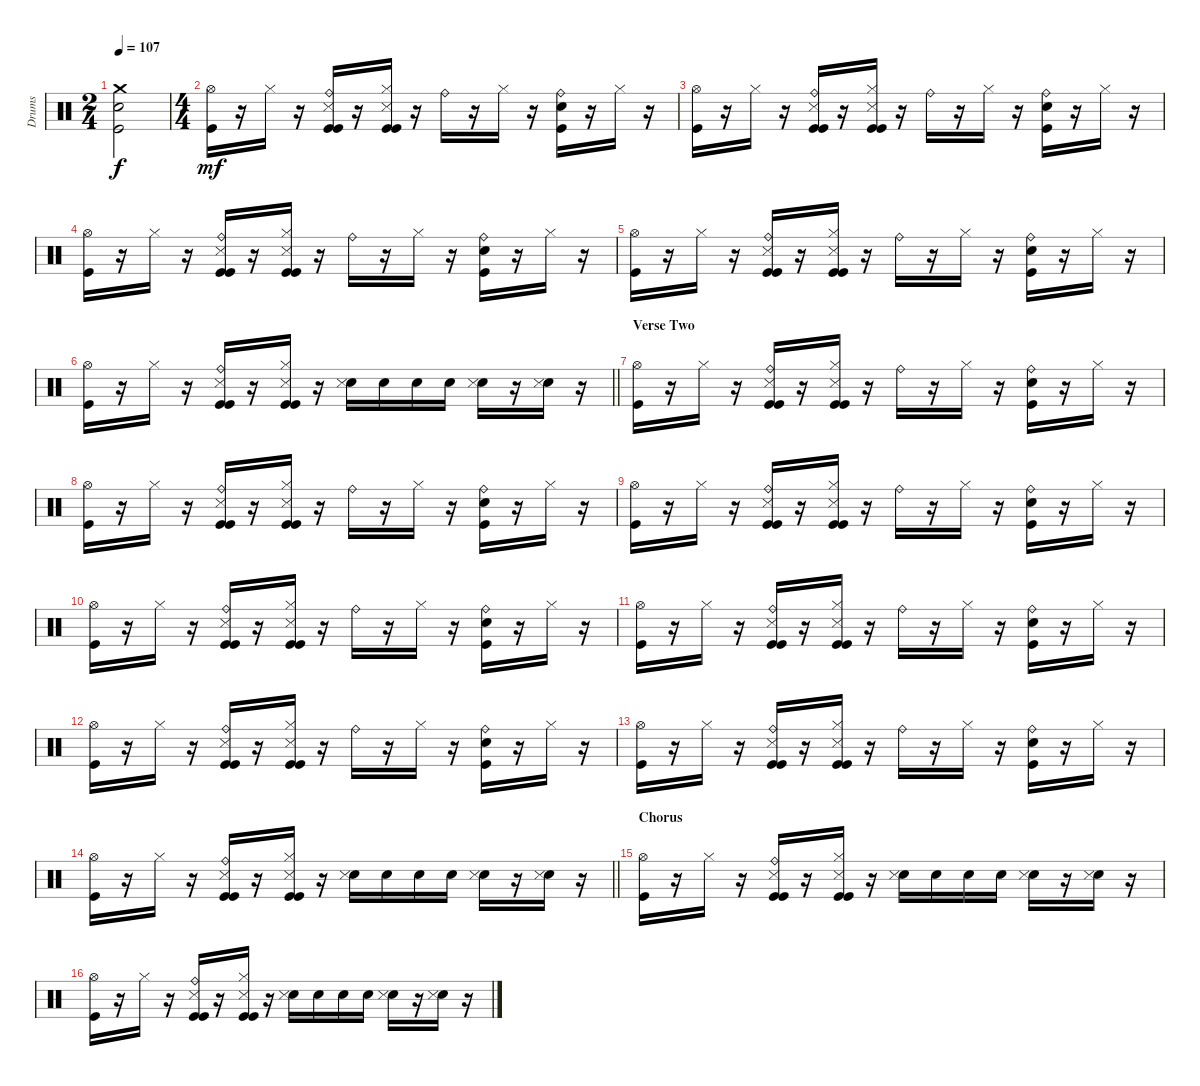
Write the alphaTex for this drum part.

\track ("Drums" "Drums") {instrument percussion}
\staff {score}
\articulation defaults
\ts (2 4)
\tempo 107
\clef neutral
\ks c
("Crash medium (hit)" "Electric Snare (hit)" "Kick (hit)").2{dy f} |
\ts (4 4)
("Hi-Hat (open)" "Kick (hit)").16{dy mf} r.16 "Hi-Hat (closed)".16 r.16 ("Ride (bell)" "Kick (hit)" "Snare (side stick) 3" "Kick (hit)").16 r.16 ("Hi-Hat (closed)" "Kick (hit)" "Snare (side stick) 3" "Kick (hit)").16 r.16 "Ride (bell)".16 r.16 "Hi-Hat (closed)".16 r.16 ("Ride (bell)" "Electric Snare (hit)" "Kick (hit)").16 r.16 "Hi-Hat (closed)".16 r.16 |
("Hi-Hat (open)" "Kick (hit)").16 r.16 "Hi-Hat (closed)".16 r.16 ("Ride (bell)" "Kick (hit)" "Snare (side stick) 3" "Kick (hit)").16 r.16 ("Hi-Hat (closed)" "Kick (hit)" "Snare (side stick) 3" "Kick (hit)").16 r.16 "Ride (bell)".16 r.16 "Hi-Hat (closed)".16 r.16 ("Ride (bell)" "Electric Snare (hit)" "Kick (hit)").16 r.16 "Hi-Hat (closed)".16 r.16 |
("Hi-Hat (open)" "Kick (hit)").16 r.16 "Hi-Hat (closed)".16 r.16 ("Ride (bell)" "Kick (hit)" "Snare (side stick) 3" "Kick (hit)").16 r.16 ("Hi-Hat (closed)" "Kick (hit)" "Snare (side stick) 3" "Kick (hit)").16 r.16 "Ride (bell)".16 r.16 "Hi-Hat (closed)".16 r.16 ("Ride (bell)" "Electric Snare (hit)" "Kick (hit)").16 r.16 "Hi-Hat (closed)".16 r.16 |
("Hi-Hat (open)" "Kick (hit)").16 r.16 "Hi-Hat (closed)".16 r.16 ("Ride (bell)" "Kick (hit)" "Snare (side stick) 3" "Kick (hit)").16 r.16 ("Hi-Hat (closed)" "Kick (hit)" "Snare (side stick) 3" "Kick (hit)").16 r.16 "Ride (bell)".16 r.16 "Hi-Hat (closed)".16 r.16 ("Ride (bell)" "Electric Snare (hit)" "Kick (hit)").16 r.16 "Hi-Hat (closed)".16 r.16 |
\barLineRight lightlight
("Hi-Hat (open)" "Kick (hit)").16 r.16 "Hi-Hat (closed)".16 r.16 ("Ride (bell)" "Kick (hit)" "Snare (side stick) 3" "Kick (hit)").16 r.16 ("Hi-Hat (closed)" "Kick (hit)" "Snare (side stick) 3" "Kick (hit)").16 r.16 ("Electric Snare (hit)" "Snare (side stick) 3").16 "Electric Snare (hit)".16 "Electric Snare (hit)".16 "Electric Snare (hit)".16 ("Electric Snare (hit)" "Snare (side stick) 3").16 r.16 ("Electric Snare (hit)" "Snare (side stick) 3").16 r.16 |
\section ("" "Verse Two")
("Hi-Hat (open)" "Kick (hit)").16 r.16 "Hi-Hat (closed)".16 r.16 ("Ride (bell)" "Kick (hit)" "Snare (side stick) 3" "Kick (hit)").16 r.16 ("Hi-Hat (closed)" "Kick (hit)" "Snare (side stick) 3" "Kick (hit)").16 r.16 "Ride (bell)".16 r.16 "Hi-Hat (closed)".16 r.16 ("Ride (bell)" "Electric Snare (hit)" "Kick (hit)").16 r.16 "Hi-Hat (closed)".16 r.16 |
("Hi-Hat (open)" "Kick (hit)").16 r.16 "Hi-Hat (closed)".16 r.16 ("Ride (bell)" "Kick (hit)" "Snare (side stick) 3" "Kick (hit)").16 r.16 ("Hi-Hat (closed)" "Kick (hit)" "Snare (side stick) 3" "Kick (hit)").16 r.16 "Ride (bell)".16 r.16 "Hi-Hat (closed)".16 r.16 ("Ride (bell)" "Electric Snare (hit)" "Kick (hit)").16 r.16 "Hi-Hat (closed)".16 r.16 |
("Hi-Hat (open)" "Kick (hit)").16 r.16 "Hi-Hat (closed)".16 r.16 ("Ride (bell)" "Kick (hit)" "Snare (side stick) 3" "Kick (hit)").16 r.16 ("Hi-Hat (closed)" "Kick (hit)" "Snare (side stick) 3" "Kick (hit)").16 r.16 "Ride (bell)".16 r.16 "Hi-Hat (closed)".16 r.16 ("Ride (bell)" "Electric Snare (hit)" "Kick (hit)").16 r.16 "Hi-Hat (closed)".16 r.16 |
("Hi-Hat (open)" "Kick (hit)").16 r.16 "Hi-Hat (closed)".16 r.16 ("Ride (bell)" "Kick (hit)" "Snare (side stick) 3" "Kick (hit)").16 r.16 ("Hi-Hat (closed)" "Kick (hit)" "Snare (side stick) 3" "Kick (hit)").16 r.16 "Ride (bell)".16 r.16 "Hi-Hat (closed)".16 r.16 ("Ride (bell)" "Electric Snare (hit)" "Kick (hit)").16 r.16 "Hi-Hat (closed)".16 r.16 |
("Hi-Hat (open)" "Kick (hit)").16 r.16 "Hi-Hat (closed)".16 r.16 ("Ride (bell)" "Kick (hit)" "Snare (side stick) 3" "Kick (hit)").16 r.16 ("Hi-Hat (closed)" "Kick (hit)" "Snare (side stick) 3" "Kick (hit)").16 r.16 "Ride (bell)".16 r.16 "Hi-Hat (closed)".16 r.16 ("Ride (bell)" "Electric Snare (hit)" "Kick (hit)").16 r.16 "Hi-Hat (closed)".16 r.16 |
("Hi-Hat (open)" "Kick (hit)").16 r.16 "Hi-Hat (closed)".16 r.16 ("Ride (bell)" "Kick (hit)" "Snare (side stick) 3" "Kick (hit)").16 r.16 ("Hi-Hat (closed)" "Kick (hit)" "Snare (side stick) 3" "Kick (hit)").16 r.16 "Ride (bell)".16 r.16 "Hi-Hat (closed)".16 r.16 ("Ride (bell)" "Electric Snare (hit)" "Kick (hit)").16 r.16 "Hi-Hat (closed)".16 r.16 |
("Hi-Hat (open)" "Kick (hit)").16 r.16 "Hi-Hat (closed)".16 r.16 ("Ride (bell)" "Kick (hit)" "Snare (side stick) 3" "Kick (hit)").16 r.16 ("Hi-Hat (closed)" "Kick (hit)" "Snare (side stick) 3" "Kick (hit)").16 r.16 "Ride (bell)".16 r.16 "Hi-Hat (closed)".16 r.16 ("Ride (bell)" "Electric Snare (hit)" "Kick (hit)").16 r.16 "Hi-Hat (closed)".16 r.16 |
\barLineRight lightlight
("Hi-Hat (open)" "Kick (hit)").16 r.16 "Hi-Hat (closed)".16 r.16 ("Ride (bell)" "Kick (hit)" "Snare (side stick) 3" "Kick (hit)").16 r.16 ("Hi-Hat (closed)" "Kick (hit)" "Snare (side stick) 3" "Kick (hit)").16 r.16 ("Electric Snare (hit)" "Snare (side stick) 3").16 "Electric Snare (hit)".16 "Electric Snare (hit)".16 "Electric Snare (hit)".16 ("Electric Snare (hit)" "Snare (side stick) 3").16 r.16 ("Electric Snare (hit)" "Snare (side stick) 3").16 r.16 |
\section ("" "Chorus")
("Hi-Hat (open)" "Kick (hit)").16 r.16 "Hi-Hat (closed)".16 r.16 ("Ride (bell)" "Kick (hit)" "Snare (side stick) 3" "Kick (hit)").16 r.16 ("Hi-Hat (closed)" "Kick (hit)" "Snare (side stick) 3" "Kick (hit)").16 r.16 ("Electric Snare (hit)" "Snare (side stick) 3").16 "Electric Snare (hit)".16 "Electric Snare (hit)".16 "Electric Snare (hit)".16 ("Electric Snare (hit)" "Snare (side stick) 3").16 r.16 ("Electric Snare (hit)" "Snare (side stick) 3").16 r.16 |
("Hi-Hat (open)" "Kick (hit)").16 r.16 "Hi-Hat (closed)".16 r.16 ("Ride (bell)" "Kick (hit)" "Snare (side stick) 3" "Kick (hit)").16 r.16 ("Hi-Hat (closed)" "Kick (hit)" "Snare (side stick) 3" "Kick (hit)").16 r.16 ("Electric Snare (hit)" "Snare (side stick) 3").16 "Electric Snare (hit)".16 "Electric Snare (hit)".16 "Electric Snare (hit)".16 ("Electric Snare (hit)" "Snare (side stick) 3").16 r.16 ("Electric Snare (hit)" "Snare (side stick) 3").16 r.16
